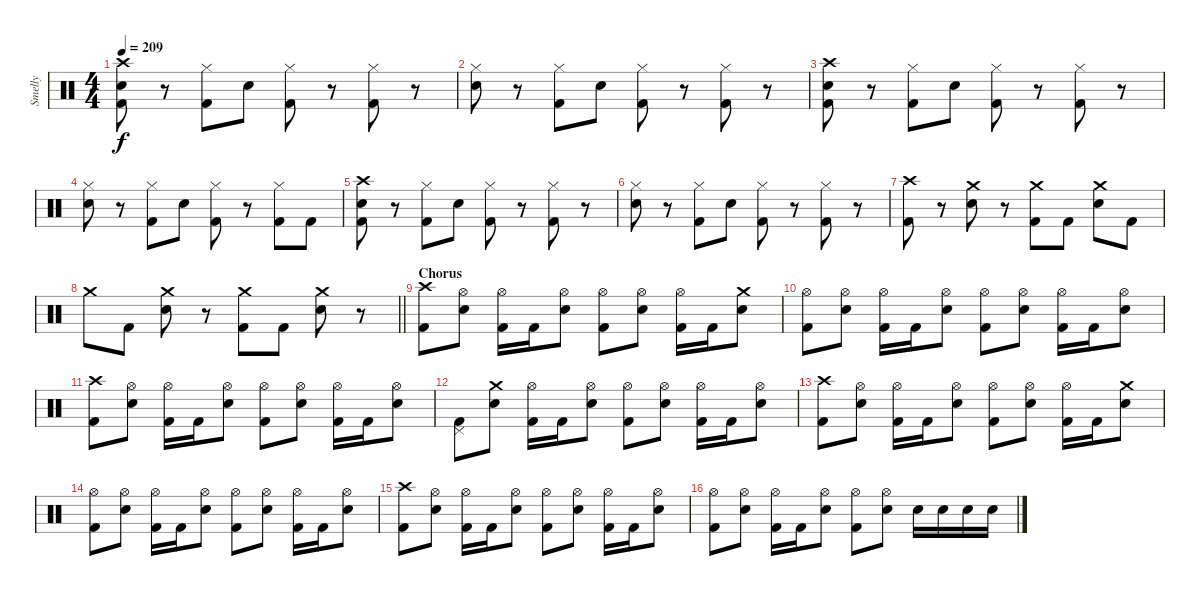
\track ("Smelly" "Smelly") {instrument percussion}
\staff {score}
\articulation defaults
\ts (4 4)
\tempo 209
\clef neutral
\ks c
("Crash high (hit)" "Electric Snare (hit)" "Kick (hit) 2").8{dy f} r.8 ("Hi-Hat (closed)" "Kick (hit) 2").8 "Electric Snare (hit)".8 ("Hi-Hat (closed)" "Kick (hit) 2").8 r.8 ("Hi-Hat (closed)" "Kick (hit) 2").8 r.8 |
("Hi-Hat (closed)" "Electric Snare (hit)").8 r.8 ("Hi-Hat (closed)" "Kick (hit) 2").8 "Electric Snare (hit)".8 ("Hi-Hat (closed)" "Kick (hit) 2").8 r.8 ("Hi-Hat (closed)" "Kick (hit) 2").8 r.8 |
("Crash high (hit)" "Electric Snare (hit)" "Kick (hit) 2").8 r.8 ("Hi-Hat (closed)" "Kick (hit) 2").8 "Electric Snare (hit)".8 ("Hi-Hat (closed)" "Kick (hit) 2").8 r.8 ("Hi-Hat (closed)" "Kick (hit) 2").8 r.8 |
("Hi-Hat (closed)" "Electric Snare (hit)").8 r.8 ("Hi-Hat (closed)" "Kick (hit) 2").8 "Electric Snare (hit)".8 ("Hi-Hat (closed)" "Kick (hit) 2").8 r.8 ("Hi-Hat (closed)" "Kick (hit) 2").8 "Kick (hit) 2".8 |
("Crash high (hit)" "Electric Snare (hit)" "Kick (hit) 2").8 r.8 ("Hi-Hat (closed)" "Kick (hit) 2").8 "Electric Snare (hit)".8 ("Hi-Hat (closed)" "Kick (hit) 2").8 r.8 ("Hi-Hat (closed)" "Kick (hit) 2").8 r.8 |
("Hi-Hat (closed)" "Electric Snare (hit)").8 r.8 ("Hi-Hat (closed)" "Kick (hit) 2").8 "Electric Snare (hit)".8 ("Hi-Hat (closed)" "Kick (hit) 2").8 r.8 ("Hi-Hat (closed)" "Kick (hit) 2").8 r.8 |
("Crash high (hit)" "Kick (hit) 2").8 r.8 ("Crash medium (hit)" "Electric Snare (hit)").8 r.8 ("Crash medium (hit)" "Kick (hit) 2").8 "Kick (hit) 2".8 ("Crash medium (hit)" "Electric Snare (hit)").8 "Kick (hit) 2".8 |
\barLineRight lightlight "Crash medium (hit)".8 "Kick (hit) 2".8
("Crash medium (hit)" "Electric Snare (hit)").8 r.8 ("Crash medium (hit)" "Kick (hit) 2").8 "Kick (hit) 2".8 ("Crash medium (hit)" "Electric Snare (hit)").8 r.8 |
\section ("" "Chorus")
("Crash high (hit)" "Kick (hit) 2").8 ("Hi-Hat (open)" "Electric Snare (hit)").8 ("Hi-Hat (open)" "Kick (hit) 2").16 "Kick (hit) 2".16 ("Hi-Hat (open)" "Electric Snare (hit)").8 ("Hi-Hat (open)" "Kick (hit) 2").8 ("Hi-Hat (open)" "Electric Snare (hit)").8 ("Hi-Hat (open)" "Kick (hit) 2").16 "Kick (hit) 2".16 ("Crash medium (hit)" "Electric Snare (hit)").8 |
("Hi-Hat (open)" "Kick (hit) 2").8 ("Hi-Hat (open)" "Electric Snare (hit)").8 ("Hi-Hat (open)" "Kick (hit) 2").16 "Kick (hit) 2".16 ("Hi-Hat (open)" "Electric Snare (hit)").8 ("Hi-Hat (open)" "Kick (hit) 2").8 ("Hi-Hat (open)" "Electric Snare (hit)").8 ("Hi-Hat (open)" "Kick (hit) 2").16 "Kick (hit) 2".16 ("Hi-Hat (open)" "Electric Snare (hit)").8 |
("Crash high (hit)" "Kick (hit) 2").8 ("Hi-Hat (open)" "Electric Snare (hit)").8 ("Hi-Hat (open)" "Kick (hit) 2").16 "Kick (hit) 2".16 ("Hi-Hat (open)" "Electric Snare (hit)").8 ("Hi-Hat (open)" "Kick (hit) 2").8 ("Hi-Hat (open)" "Electric Snare (hit)").8 ("Hi-Hat (open)" "Kick (hit) 2").16 "Kick (hit) 2".16 ("Hi-Hat (open)" "Electric Snare (hit)").8 |
("Pedal Hi-Hat (hit)" "Kick (hit) 2").8 ("Crash medium (hit)" "Electric Snare (hit)").8 ("Hi-Hat (open)" "Kick (hit) 2").16 "Kick (hit) 2".16 ("Hi-Hat (open)" "Electric Snare (hit)").8 ("Hi-Hat (open)" "Kick (hit) 2").8 ("Hi-Hat (open)" "Electric Snare (hit)").8 ("Hi-Hat (open)" "Kick (hit) 2").16 "Kick (hit) 2".16 ("Hi-Hat (open)" "Electric Snare (hit)").8 |
("Crash high (hit)" "Kick (hit) 2").8 ("Hi-Hat (open)" "Electric Snare (hit)").8 ("Hi-Hat (open)" "Kick (hit) 2").16 "Kick (hit) 2".16 ("Hi-Hat (open)" "Electric Snare (hit)").8 ("Hi-Hat (open)" "Kick (hit) 2").8 ("Hi-Hat (open)" "Electric Snare (hit)").8 ("Hi-Hat (open)" "Kick (hit) 2").16 "Kick (hit) 2".16 ("Crash medium (hit)" "Electric Snare (hit)").8 |
("Hi-Hat (open)" "Kick (hit) 2").8 ("Hi-Hat (open)" "Electric Snare (hit)").8 ("Hi-Hat (open)" "Kick (hit) 2").16 "Kick (hit) 2".16 ("Hi-Hat (open)" "Electric Snare (hit)").8 ("Hi-Hat (open)" "Kick (hit) 2").8 ("Hi-Hat (open)" "Electric Snare (hit)").8 ("Hi-Hat (open)" "Kick (hit) 2").16 "Kick (hit) 2".16 ("Hi-Hat (open)" "Electric Snare (hit)").8 |
("Crash high (hit)" "Kick (hit) 2").8 ("Hi-Hat (open)" "Electric Snare (hit)").8 ("Hi-Hat (open)" "Kick (hit) 2").16 "Kick (hit) 2".16 ("Hi-Hat (open)" "Electric Snare (hit)").8 ("Hi-Hat (open)" "Kick (hit) 2").8 ("Hi-Hat (open)" "Electric Snare (hit)").8 ("Hi-Hat (open)" "Kick (hit) 2").16 "Kick (hit) 2".16 ("Hi-Hat (open)" "Electric Snare (hit)").8 |
("Hi-Hat (open)" "Kick (hit) 2").8 ("Hi-Hat (open)" "Electric Snare (hit)").8 ("Hi-Hat (open)" "Kick (hit) 2").16 "Kick (hit) 2".16 ("Hi-Hat (open)" "Electric Snare (hit)").8 ("Hi-Hat (open)" "Kick (hit) 2").8 ("Hi-Hat (open)" "Electric Snare (hit)").8 "Electric Snare (hit)".16 "Electric Snare (hit)".16 "Electric Snare (hit)".16 "Electric Snare (hit)".16
